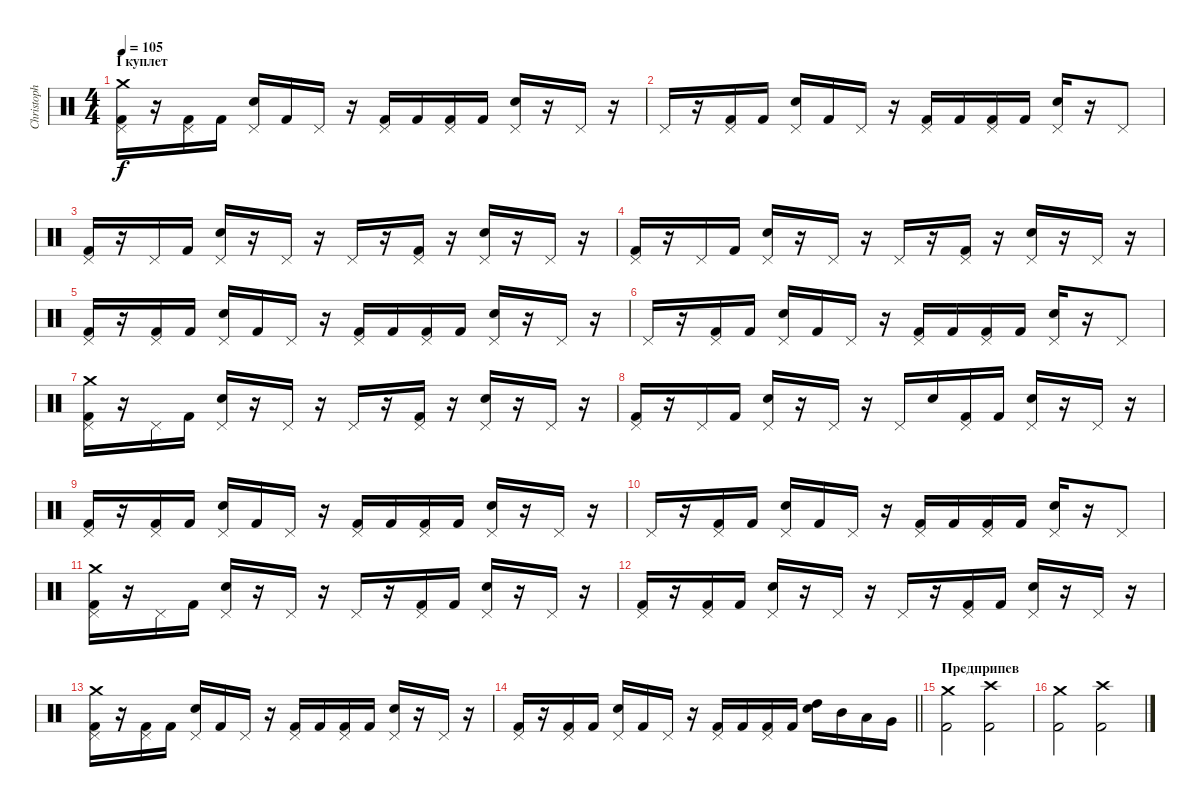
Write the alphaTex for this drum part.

\track ("Christoph Schneider" "Christoph ") {instrument percussion}
\staff {score}
\articulation defaults
\ts (4 4)
\section ("" "I куплет")
\tempo 105
\clef neutral
\ks c
("Crash medium (hit)" "Kick (hit) 2" "Pedal Hi-Hat (hit)").16{dy f} r.16 ("Pedal Hi-Hat (hit)" "Kick (hit) 2").16 "Kick (hit) 2".16 ("Pedal Hi-Hat (hit)" "Electric Snare (hit)").16 "Kick (hit) 2".16 "Pedal Hi-Hat (hit)".16 r.16 ("Pedal Hi-Hat (hit)" "Kick (hit) 2").16 "Kick (hit) 2".16 ("Pedal Hi-Hat (hit)" "Kick (hit) 2").16 "Kick (hit) 2".16 ("Pedal Hi-Hat (hit)" "Electric Snare (hit)").16 r.16 "Pedal Hi-Hat (hit)".16 r.16 |
"Pedal Hi-Hat (hit)".16 r.16 ("Pedal Hi-Hat (hit)" "Kick (hit) 2").16 "Kick (hit) 2".16 ("Pedal Hi-Hat (hit)" "Electric Snare (hit)").16 "Kick (hit) 2".16 "Pedal Hi-Hat (hit)".16 r.16 ("Pedal Hi-Hat (hit)" "Kick (hit) 2").16 "Kick (hit) 2".16 ("Pedal Hi-Hat (hit)" "Kick (hit) 2").16 "Kick (hit) 2".16 ("Pedal Hi-Hat (hit)" "Electric Snare (hit)").16 r.16 "Pedal Hi-Hat (hit)".8 |
("Pedal Hi-Hat (hit)" "Kick (hit) 2").16 r.16 "Pedal Hi-Hat (hit)".16 "Kick (hit) 2".16 ("Pedal Hi-Hat (hit)" "Electric Snare (hit)").16 r.16 "Pedal Hi-Hat (hit)".16 r.16 "Pedal Hi-Hat (hit)".16 r.16 ("Pedal Hi-Hat (hit)" "Kick (hit) 2").16 r.16 ("Pedal Hi-Hat (hit)" "Electric Snare (hit)").16 r.16 "Pedal Hi-Hat (hit)".16 r.16 |
("Pedal Hi-Hat (hit)" "Kick (hit) 2").16 r.16 "Pedal Hi-Hat (hit)".16 "Kick (hit) 2".16 ("Pedal Hi-Hat (hit)" "Electric Snare (hit)").16 r.16 "Pedal Hi-Hat (hit)".16 r.16 "Pedal Hi-Hat (hit)".16 r.16 ("Pedal Hi-Hat (hit)" "Kick (hit) 2").16 r.16 ("Pedal Hi-Hat (hit)" "Electric Snare (hit)").16 r.16 "Pedal Hi-Hat (hit)".16 r.16 |
("Kick (hit) 2" "Pedal Hi-Hat (hit)").16 r.16 ("Pedal Hi-Hat (hit)" "Kick (hit) 2").16 "Kick (hit) 2".16 ("Pedal Hi-Hat (hit)" "Electric Snare (hit)").16 "Kick (hit) 2".16 "Pedal Hi-Hat (hit)".16 r.16 ("Pedal Hi-Hat (hit)" "Kick (hit) 2").16 "Kick (hit) 2".16 ("Pedal Hi-Hat (hit)" "Kick (hit) 2").16 "Kick (hit) 2".16 ("Pedal Hi-Hat (hit)" "Electric Snare (hit)").16 r.16 "Pedal Hi-Hat (hit)".16 r.16 |
"Pedal Hi-Hat (hit)".16 r.16 ("Pedal Hi-Hat (hit)" "Kick (hit) 2").16 "Kick (hit) 2".16 ("Pedal Hi-Hat (hit)" "Electric Snare (hit)").16 "Kick (hit) 2".16 "Pedal Hi-Hat (hit)".16 r.16 ("Pedal Hi-Hat (hit)" "Kick (hit) 2").16 "Kick (hit) 2".16 ("Pedal Hi-Hat (hit)" "Kick (hit) 2").16 "Kick (hit) 2".16 ("Pedal Hi-Hat (hit)" "Electric Snare (hit)").16 r.16 "Pedal Hi-Hat (hit)".8 |
("Pedal Hi-Hat (hit)" "Kick (hit) 2" "Crash medium (hit)").16 r.16 "Pedal Hi-Hat (hit)".16 "Kick (hit) 2".16 ("Pedal Hi-Hat (hit)" "Electric Snare (hit)").16 r.16 "Pedal Hi-Hat (hit)".16 r.16 "Pedal Hi-Hat (hit)".16 r.16 ("Pedal Hi-Hat (hit)" "Kick (hit) 2").16 r.16 ("Pedal Hi-Hat (hit)" "Electric Snare (hit)").16 r.16 "Pedal Hi-Hat (hit)".16 r.16 |
("Pedal Hi-Hat (hit)" "Kick (hit) 2").16 r.16 "Pedal Hi-Hat (hit)".16 "Kick (hit) 2".16 ("Pedal Hi-Hat (hit)" "Electric Snare (hit)").16 r.16 "Pedal Hi-Hat (hit)".16 r.16 "Pedal Hi-Hat (hit)".16 "Electric Snare (hit)".16 ("Pedal Hi-Hat (hit)" "Kick (hit) 2").16 "Kick (hit) 2".16 ("Pedal Hi-Hat (hit)" "Electric Snare (hit)").16 r.16 "Pedal Hi-Hat (hit)".16 r.16 |
("Kick (hit) 2" "Pedal Hi-Hat (hit)").16 r.16 ("Pedal Hi-Hat (hit)" "Kick (hit) 2").16 "Kick (hit) 2".16 ("Pedal Hi-Hat (hit)" "Electric Snare (hit)").16 "Kick (hit) 2".16 "Pedal Hi-Hat (hit)".16 r.16 ("Pedal Hi-Hat (hit)" "Kick (hit) 2").16 "Kick (hit) 2".16 ("Pedal Hi-Hat (hit)" "Kick (hit) 2").16 "Kick (hit) 2".16 ("Pedal Hi-Hat (hit)" "Electric Snare (hit)").16 r.16 "Pedal Hi-Hat (hit)".16 r.16 |
"Pedal Hi-Hat (hit)".16 r.16 ("Pedal Hi-Hat (hit)" "Kick (hit) 2").16 "Kick (hit) 2".16 ("Pedal Hi-Hat (hit)" "Electric Snare (hit)").16 "Kick (hit) 2".16 "Pedal Hi-Hat (hit)".16 r.16 ("Pedal Hi-Hat (hit)" "Kick (hit) 2").16 "Kick (hit) 2".16 ("Pedal Hi-Hat (hit)" "Kick (hit) 2").16 "Kick (hit) 2".16 ("Pedal Hi-Hat (hit)" "Electric Snare (hit)").16 r.16 "Pedal Hi-Hat (hit)".8 |
("Pedal Hi-Hat (hit)" "Kick (hit) 2" "Crash medium (hit)").16 r.16 "Pedal Hi-Hat (hit)".16 "Kick (hit) 2".16 ("Pedal Hi-Hat (hit)" "Electric Snare (hit)").16 r.16 "Pedal Hi-Hat (hit)".16 r.16 "Pedal Hi-Hat (hit)".16 r.16 ("Pedal Hi-Hat (hit)" "Kick (hit) 2").16 "Kick (hit) 2".16 ("Pedal Hi-Hat (hit)" "Electric Snare (hit)").16 r.16 "Pedal Hi-Hat (hit)".16 r.16 |
("Pedal Hi-Hat (hit)" "Kick (hit) 2").16 r.16 ("Pedal Hi-Hat (hit)" "Kick (hit) 2").16 "Kick (hit) 2".16 ("Pedal Hi-Hat (hit)" "Electric Snare (hit)").16 r.16 "Pedal Hi-Hat (hit)".16 r.16 "Pedal Hi-Hat (hit)".16 r.16 ("Pedal Hi-Hat (hit)" "Kick (hit) 2").16 "Kick (hit) 2".16 ("Pedal Hi-Hat (hit)" "Electric Snare (hit)").16 r.16 "Pedal Hi-Hat (hit)".16 r.16 |
("Crash medium (hit)" "Kick (hit) 2" "Pedal Hi-Hat (hit)").16 r.16 ("Pedal Hi-Hat (hit)" "Kick (hit) 2").16 "Kick (hit) 2".16 ("Pedal Hi-Hat (hit)" "Electric Snare (hit)").16 "Kick (hit) 2".16 "Pedal Hi-Hat (hit)".16 r.16 ("Pedal Hi-Hat (hit)" "Kick (hit) 2").16 "Kick (hit) 2".16 ("Pedal Hi-Hat (hit)" "Kick (hit) 2").16 "Kick (hit) 2".16 ("Pedal Hi-Hat (hit)" "Electric Snare (hit)").16 r.16 "Pedal Hi-Hat (hit)".16 r.16 |
\barLineRight lightlight
("Kick (hit) 2" "Pedal Hi-Hat (hit)").16 r.16 ("Pedal Hi-Hat (hit)" "Kick (hit) 2").16 "Kick (hit) 2".16 ("Pedal Hi-Hat (hit)" "Electric Snare (hit)").16 "Kick (hit) 2".16 "Pedal Hi-Hat (hit)".16 r.16 ("Pedal Hi-Hat (hit)" "Kick (hit) 2").16 "Kick (hit) 2".16 ("Pedal Hi-Hat (hit)" "Kick (hit) 2").16 "Kick (hit) 2".16 ("Electric Snare (hit)" "High Tom (hit)").16 "Mid Tom (hit)".16 "Low Tom (hit)".16 "Very Low Tom (hit)".16 |
\section ("" "Предприпев")
("Crash medium (hit)" "Kick (hit) 2").2{volume 16} ("Crash high (hit)" "Kick (hit) 2").2 |
("Crash medium (hit)" "Kick (hit) 2").2 ("Crash high (hit)" "Kick (hit) 2").2
